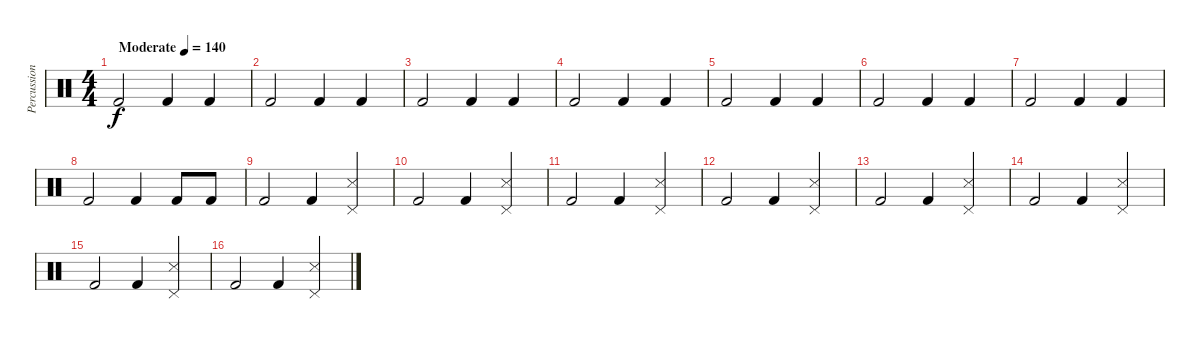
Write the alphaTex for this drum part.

\track ("Percussion" "Percussion") {instrument percussion}
\staff {score}
\articulation defaults
\ts (4 4)
\tempo (140 "Moderate")
\clef neutral
\ks c "Kick (hit) 2".2{dy f} "Kick (hit) 2".4 "Kick (hit) 2".4
|
"Kick (hit) 2".2 "Kick (hit) 2".4 "Kick (hit) 2".4 |
"Kick (hit) 2".2 "Kick (hit) 2".4 "Kick (hit) 2".4 |
"Kick (hit) 2".2 "Kick (hit) 2".4 "Kick (hit) 2".4 |
"Kick (hit) 2".2 "Kick (hit) 2".4 "Kick (hit) 2".4 |
"Kick (hit) 2".2 "Kick (hit) 2".4 "Kick (hit) 2".4 |
"Kick (hit) 2".2 "Kick (hit) 2".4 "Kick (hit) 2".4 |
"Kick (hit) 2".2 "Kick (hit) 2".4 "Kick (hit) 2".8 "Kick (hit) 2".8 |
"Kick (hit) 2".2 "Kick (hit) 2".4 ("Snare (side stick) 3" "Pedal Hi-Hat (hit)").4 |
"Kick (hit) 2".2 "Kick (hit) 2".4 ("Snare (side stick) 3" "Pedal Hi-Hat (hit)").4 |
"Kick (hit) 2".2 "Kick (hit) 2".4 ("Snare (side stick) 3" "Pedal Hi-Hat (hit)").4 |
"Kick (hit) 2".2 "Kick (hit) 2".4 ("Snare (side stick) 3" "Pedal Hi-Hat (hit)").4 |
"Kick (hit) 2".2 "Kick (hit) 2".4 ("Snare (side stick) 3" "Pedal Hi-Hat (hit)").4 |
"Kick (hit) 2".2 "Kick (hit) 2".4 ("Snare (side stick) 3" "Pedal Hi-Hat (hit)").4 |
"Kick (hit) 2".2 "Kick (hit) 2".4 ("Snare (side stick) 3" "Pedal Hi-Hat (hit)").4 |
"Kick (hit) 2".2 "Kick (hit) 2".4 ("Snare (side stick) 3" "Pedal Hi-Hat (hit)").4
